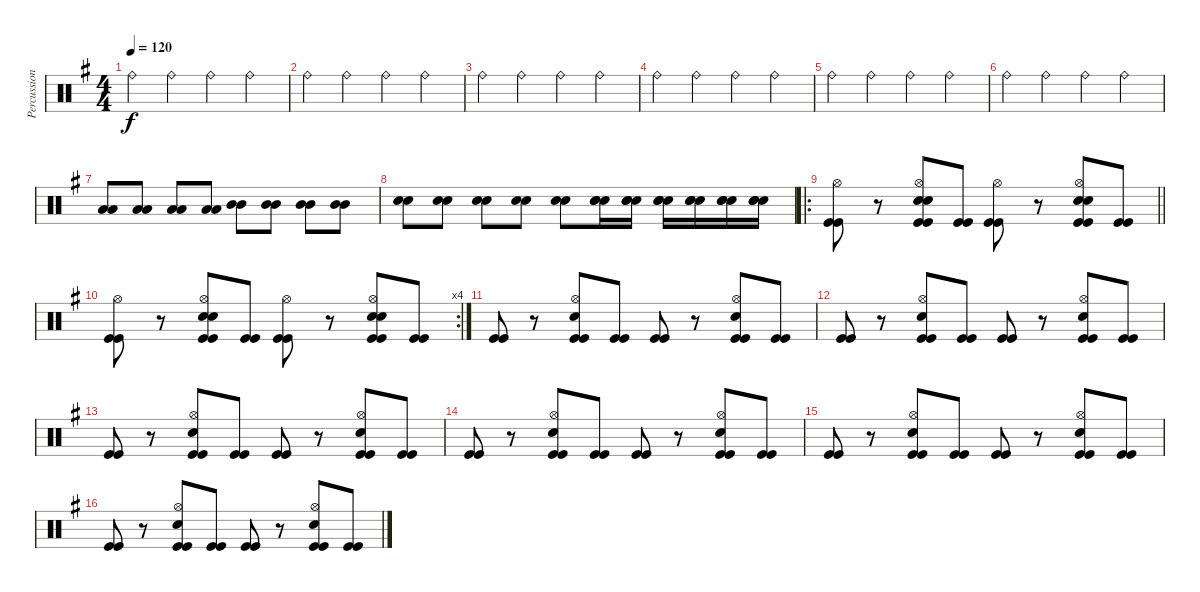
\track ("Percussion" "Percussion") {instrument percussion}
\staff {score}
\articulation defaults
\ts (4 4)
\tempo 120
\clef neutral
\ks eminor "Ride (bell)".4{dy f} "Ride (bell)".4 "Ride (bell)".4 "Ride (bell)".4
|
"Ride (bell)".4 "Ride (bell)".4 "Ride (bell)".4 "Ride (bell)".4 |
"Ride (bell)".4 "Ride (bell)".4 "Ride (bell)".4 "Ride (bell)".4 |
"Ride (bell)".4 "Ride (bell)".4 "Ride (bell)".4 "Ride (bell)".4 |
"Ride (bell)".4 "Ride (bell)".4 "Ride (bell)".4 "Ride (bell)".4 |
"Ride (bell)".4 "Ride (bell)".4 "Ride (bell)".4 "Ride (bell)".4 |
("Low Tom (hit)" "Low Tom (hit)").8 ("Low Tom (hit)" "Low Tom (hit)").8 ("Low Tom (hit)" "Low Tom (hit)").8 ("Low Tom (hit)" "Low Tom (hit)").8 ("Mid Tom (hit)" "Mid Tom (hit)").8 ("Mid Tom (hit)" "Mid Tom (hit)").8 ("Mid Tom (hit)" "Mid Tom (hit)").8 ("Mid Tom (hit)" "Mid Tom (hit)").8 |
("Electric Snare (hit)" "Electric Snare (hit)").8 ("Electric Snare (hit)" "Electric Snare (hit)").8 ("Electric Snare (hit)" "Electric Snare (hit)").8 ("Electric Snare (hit)" "Electric Snare (hit)").8 ("Electric Snare (hit)" "Electric Snare (hit)").8 ("Electric Snare (hit)" "Metronome (bell)" "Snare (hit) 2").16 ("Electric Snare (hit)" "Metronome (bell)" "Snare (hit) 2").16 ("Electric Snare (hit)" "Metronome (bell)" "Snare (hit) 2").16 ("Electric Snare (hit)" "Metronome (bell)" "Snare (hit) 2").16 ("Electric Snare (hit)" "Metronome (bell)" "Snare (hit) 2").16 ("Electric Snare (hit)" "Metronome (bell)" "Snare (hit) 2").16 |
\ro
\barLineRight lightlight
("Hi-Hat (open)" "Kick (hit)" "Kick (hit)").8 r.8 ("Hi-Hat (open)" "Kick (hit)" "Kick (hit)" "Electric Snare (hit)" "Snare (hit) 2").8 ("Kick (hit)" "Kick (hit)").8 ("Hi-Hat (open)" "Kick (hit)" "Kick (hit)").8 r.8 ("Hi-Hat (open)" "Kick (hit)" "Kick (hit)" "Electric Snare (hit)" "Snare (hit) 2").8 ("Kick (hit)" "Kick (hit)").8 |
\rc 4
("Hi-Hat (open)" "Kick (hit)" "Kick (hit)").8 r.8 ("Hi-Hat (open)" "Kick (hit)" "Kick (hit)" "Electric Snare (hit)" "Snare (hit) 2").8 ("Kick (hit)" "Kick (hit)").8 ("Hi-Hat (open)" "Kick (hit)" "Kick (hit)").8 r.8 ("Hi-Hat (open)" "Kick (hit)" "Kick (hit)" "Electric Snare (hit)" "Snare (hit) 2").8 ("Kick (hit)" "Kick (hit)").8 |
("Kick (hit)" "Kick (hit)").8 r.8 ("Hi-Hat (open)" "Kick (hit)" "Kick (hit)" "Snare (hit) 2").8 ("Kick (hit)" "Kick (hit)").8 ("Kick (hit)" "Kick (hit)").8 r.8 ("Hi-Hat (open)" "Kick (hit)" "Kick (hit)" "Snare (hit) 2").8 ("Kick (hit)" "Kick (hit)").8 |
("Kick (hit)" "Kick (hit)").8 r.8 ("Hi-Hat (open)" "Kick (hit)" "Kick (hit)" "Snare (hit) 2").8 ("Kick (hit)" "Kick (hit)").8 ("Kick (hit)" "Kick (hit)").8 r.8 ("Hi-Hat (open)" "Kick (hit)" "Kick (hit)" "Snare (hit) 2").8 ("Kick (hit)" "Kick (hit)").8 |
("Kick (hit)" "Kick (hit)").8 r.8 ("Hi-Hat (open)" "Kick (hit)" "Kick (hit)" "Snare (hit) 2").8 ("Kick (hit)" "Kick (hit)").8 ("Kick (hit)" "Kick (hit)").8 r.8 ("Hi-Hat (open)" "Kick (hit)" "Kick (hit)" "Snare (hit) 2").8 ("Kick (hit)" "Kick (hit)").8 |
("Kick (hit)" "Kick (hit)").8 r.8 ("Hi-Hat (open)" "Kick (hit)" "Kick (hit)" "Snare (hit) 2").8 ("Kick (hit)" "Kick (hit)").8 ("Kick (hit)" "Kick (hit)").8 r.8 ("Hi-Hat (open)" "Kick (hit)" "Kick (hit)" "Snare (hit) 2").8 ("Kick (hit)" "Kick (hit)").8 |
("Kick (hit)" "Kick (hit)").8 r.8 ("Hi-Hat (open)" "Kick (hit)" "Kick (hit)" "Snare (hit) 2").8 ("Kick (hit)" "Kick (hit)").8 ("Kick (hit)" "Kick (hit)").8 r.8 ("Hi-Hat (open)" "Kick (hit)" "Kick (hit)" "Snare (hit) 2").8 ("Kick (hit)" "Kick (hit)").8 |
("Kick (hit)" "Kick (hit)").8 r.8 ("Hi-Hat (open)" "Kick (hit)" "Kick (hit)" "Snare (hit) 2").8 ("Kick (hit)" "Kick (hit)").8 ("Kick (hit)" "Kick (hit)").8 r.8 ("Hi-Hat (open)" "Kick (hit)" "Kick (hit)" "Snare (hit) 2").8 ("Kick (hit)" "Kick (hit)").8
